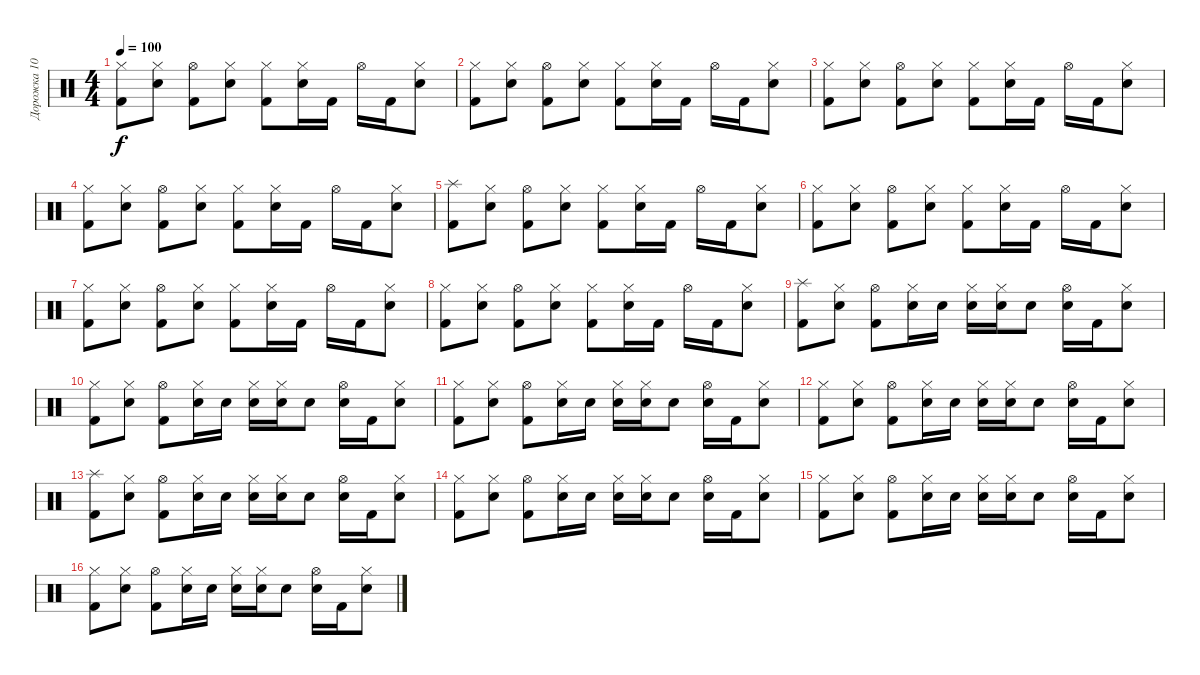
\track ("Дорожка 10" "Дорожка 10") {instrument percussion}
\staff {score}
\articulation defaults
\ts (4 4)
\tempo 100
\clef neutral
\ks c
("Kick (hit) 2" "Hi-Hat (closed)").8{dy f} ("Electric Snare (hit)" "Hi-Hat (closed)").8 ("Kick (hit) 2" "Hi-Hat (open)").8 ("Electric Snare (hit)" "Hi-Hat (closed)").8 ("Kick (hit) 2" "Hi-Hat (closed)").8 ("Electric Snare (hit)" "Hi-Hat (closed)").16 "Kick (hit) 2".16 "Hi-Hat (open)".16 "Kick (hit) 2".16 ("Electric Snare (hit)" "Hi-Hat (closed)").8 |
("Kick (hit) 2" "Hi-Hat (closed)").8 ("Electric Snare (hit)" "Hi-Hat (closed)").8 ("Kick (hit) 2" "Hi-Hat (open)").8 ("Electric Snare (hit)" "Hi-Hat (closed)").8 ("Kick (hit) 2" "Hi-Hat (closed)").8 ("Electric Snare (hit)" "Hi-Hat (closed)").16 "Kick (hit) 2".16 "Hi-Hat (open)".16 "Kick (hit) 2".16 ("Electric Snare (hit)" "Hi-Hat (closed)").8 |
("Kick (hit) 2" "Hi-Hat (closed)").8 ("Electric Snare (hit)" "Hi-Hat (closed)").8 ("Kick (hit) 2" "Hi-Hat (open)").8 ("Electric Snare (hit)" "Hi-Hat (closed)").8 ("Kick (hit) 2" "Hi-Hat (closed)").8 ("Electric Snare (hit)" "Hi-Hat (closed)").16 "Kick (hit) 2".16 "Hi-Hat (open)".16 "Kick (hit) 2".16 ("Electric Snare (hit)" "Hi-Hat (closed)").8 |
("Kick (hit) 2" "Hi-Hat (closed)").8 ("Electric Snare (hit)" "Hi-Hat (closed)").8 ("Kick (hit) 2" "Hi-Hat (open)").8 ("Electric Snare (hit)" "Hi-Hat (closed)").8 ("Kick (hit) 2" "Hi-Hat (closed)").8 ("Electric Snare (hit)" "Hi-Hat (closed)").16 "Kick (hit) 2".16 "Hi-Hat (open)".16 "Kick (hit) 2".16 ("Electric Snare (hit)" "Hi-Hat (closed)").8 |
("Kick (hit) 2" "Splash (hit)").8 ("Electric Snare (hit)" "Hi-Hat (closed)").8 ("Kick (hit) 2" "Hi-Hat (open)").8 ("Electric Snare (hit)" "Hi-Hat (closed)").8 ("Kick (hit) 2" "Hi-Hat (closed)").8 ("Electric Snare (hit)" "Hi-Hat (closed)").16 "Kick (hit) 2".16 "Hi-Hat (open)".16 "Kick (hit) 2".16 ("Electric Snare (hit)" "Hi-Hat (closed)").8 |
("Kick (hit) 2" "Hi-Hat (closed)").8 ("Electric Snare (hit)" "Hi-Hat (closed)").8 ("Kick (hit) 2" "Hi-Hat (open)").8 ("Electric Snare (hit)" "Hi-Hat (closed)").8 ("Kick (hit) 2" "Hi-Hat (closed)").8 ("Electric Snare (hit)" "Hi-Hat (closed)").16 "Kick (hit) 2".16 "Hi-Hat (open)".16 "Kick (hit) 2".16 ("Electric Snare (hit)" "Hi-Hat (closed)").8 |
("Kick (hit) 2" "Hi-Hat (closed)").8 ("Electric Snare (hit)" "Hi-Hat (closed)").8 ("Kick (hit) 2" "Hi-Hat (open)").8 ("Electric Snare (hit)" "Hi-Hat (closed)").8 ("Kick (hit) 2" "Hi-Hat (closed)").8 ("Electric Snare (hit)" "Hi-Hat (closed)").16 "Kick (hit) 2".16 "Hi-Hat (open)".16 "Kick (hit) 2".16 ("Electric Snare (hit)" "Hi-Hat (closed)").8 |
("Kick (hit) 2" "Hi-Hat (closed)").8 ("Electric Snare (hit)" "Hi-Hat (closed)").8 ("Kick (hit) 2" "Hi-Hat (open)").8 ("Electric Snare (hit)" "Hi-Hat (closed)").8 ("Kick (hit) 2" "Hi-Hat (closed)").8 ("Electric Snare (hit)" "Hi-Hat (closed)").16 "Kick (hit) 2".16 "Hi-Hat (open)".16 "Kick (hit) 2".16 ("Electric Snare (hit)" "Hi-Hat (closed)").8 |
("Kick (hit) 2" "Splash (hit)").8 ("Electric Snare (hit)" "Hi-Hat (closed)").8 ("Kick (hit) 2" "Hi-Hat (open)").8 ("Electric Snare (hit)" "Hi-Hat (closed)").16 "Electric Snare (hit)".16 ("Electric Snare (hit)" "Hi-Hat (closed)").16 ("Electric Snare (hit)" "Hi-Hat (closed)").16 "Electric Snare (hit)".8 ("Electric Snare (hit)" "Hi-Hat (open)").16 "Kick (hit) 2".16 ("Electric Snare (hit)" "Hi-Hat (closed)").8 |
("Kick (hit) 2" "Hi-Hat (closed)").8 ("Electric Snare (hit)" "Hi-Hat (closed)").8 ("Kick (hit) 2" "Hi-Hat (open)").8 ("Electric Snare (hit)" "Hi-Hat (closed)").16 "Electric Snare (hit)".16 ("Electric Snare (hit)" "Hi-Hat (closed)").16 ("Electric Snare (hit)" "Hi-Hat (closed)").16 "Electric Snare (hit)".8 ("Electric Snare (hit)" "Hi-Hat (open)").16 "Kick (hit) 2".16 ("Electric Snare (hit)" "Hi-Hat (closed)").8 |
("Kick (hit) 2" "Hi-Hat (closed)").8 ("Electric Snare (hit)" "Hi-Hat (closed)").8 ("Kick (hit) 2" "Hi-Hat (open)").8 ("Electric Snare (hit)" "Hi-Hat (closed)").16 "Electric Snare (hit)".16 ("Electric Snare (hit)" "Hi-Hat (closed)").16 ("Electric Snare (hit)" "Hi-Hat (closed)").16 "Electric Snare (hit)".8 ("Electric Snare (hit)" "Hi-Hat (open)").16 "Kick (hit) 2".16 ("Electric Snare (hit)" "Hi-Hat (closed)").8 |
("Kick (hit) 2" "Hi-Hat (closed)").8 ("Electric Snare (hit)" "Hi-Hat (closed)").8 ("Kick (hit) 2" "Hi-Hat (open)").8 ("Electric Snare (hit)" "Hi-Hat (closed)").16 "Electric Snare (hit)".16 ("Electric Snare (hit)" "Hi-Hat (closed)").16{volume 0} ("Electric Snare (hit)" "Hi-Hat (closed)").16 "Electric Snare (hit)".8 ("Electric Snare (hit)" "Hi-Hat (open)").16 "Kick (hit) 2".16 ("Electric Snare (hit)" "Hi-Hat (closed)").8 |
("Kick (hit) 2" "Splash (hit)").8 ("Electric Snare (hit)" "Hi-Hat (closed)").8 ("Kick (hit) 2" "Hi-Hat (open)").8 ("Electric Snare (hit)" "Hi-Hat (closed)").16 "Electric Snare (hit)".16 ("Electric Snare (hit)" "Hi-Hat (closed)").16 ("Electric Snare (hit)" "Hi-Hat (closed)").16 "Electric Snare (hit)".8 ("Electric Snare (hit)" "Hi-Hat (open)").16 "Kick (hit) 2".16 ("Electric Snare (hit)" "Hi-Hat (closed)").8 |
("Kick (hit) 2" "Hi-Hat (closed)").8 ("Electric Snare (hit)" "Hi-Hat (closed)").8 ("Kick (hit) 2" "Hi-Hat (open)").8 ("Electric Snare (hit)" "Hi-Hat (closed)").16 "Electric Snare (hit)".16 ("Electric Snare (hit)" "Hi-Hat (closed)").16 ("Electric Snare (hit)" "Hi-Hat (closed)").16 "Electric Snare (hit)".8 ("Electric Snare (hit)" "Hi-Hat (open)").16 "Kick (hit) 2".16 ("Electric Snare (hit)" "Hi-Hat (closed)").8 |
("Kick (hit) 2" "Hi-Hat (closed)").8 ("Electric Snare (hit)" "Hi-Hat (closed)").8 ("Kick (hit) 2" "Hi-Hat (open)").8 ("Electric Snare (hit)" "Hi-Hat (closed)").16 "Electric Snare (hit)".16 ("Electric Snare (hit)" "Hi-Hat (closed)").16 ("Electric Snare (hit)" "Hi-Hat (closed)").16 "Electric Snare (hit)".8 ("Electric Snare (hit)" "Hi-Hat (open)").16 "Kick (hit) 2".16 ("Electric Snare (hit)" "Hi-Hat (closed)").8 |
("Kick (hit) 2" "Hi-Hat (closed)").8 ("Electric Snare (hit)" "Hi-Hat (closed)").8 ("Kick (hit) 2" "Hi-Hat (open)").8 ("Electric Snare (hit)" "Hi-Hat (closed)").16 "Electric Snare (hit)".16 ("Electric Snare (hit)" "Hi-Hat (closed)").16 ("Electric Snare (hit)" "Hi-Hat (closed)").16 "Electric Snare (hit)".8 ("Electric Snare (hit)" "Hi-Hat (open)").16 "Kick (hit) 2".16 ("Electric Snare (hit)" "Hi-Hat (closed)").8
